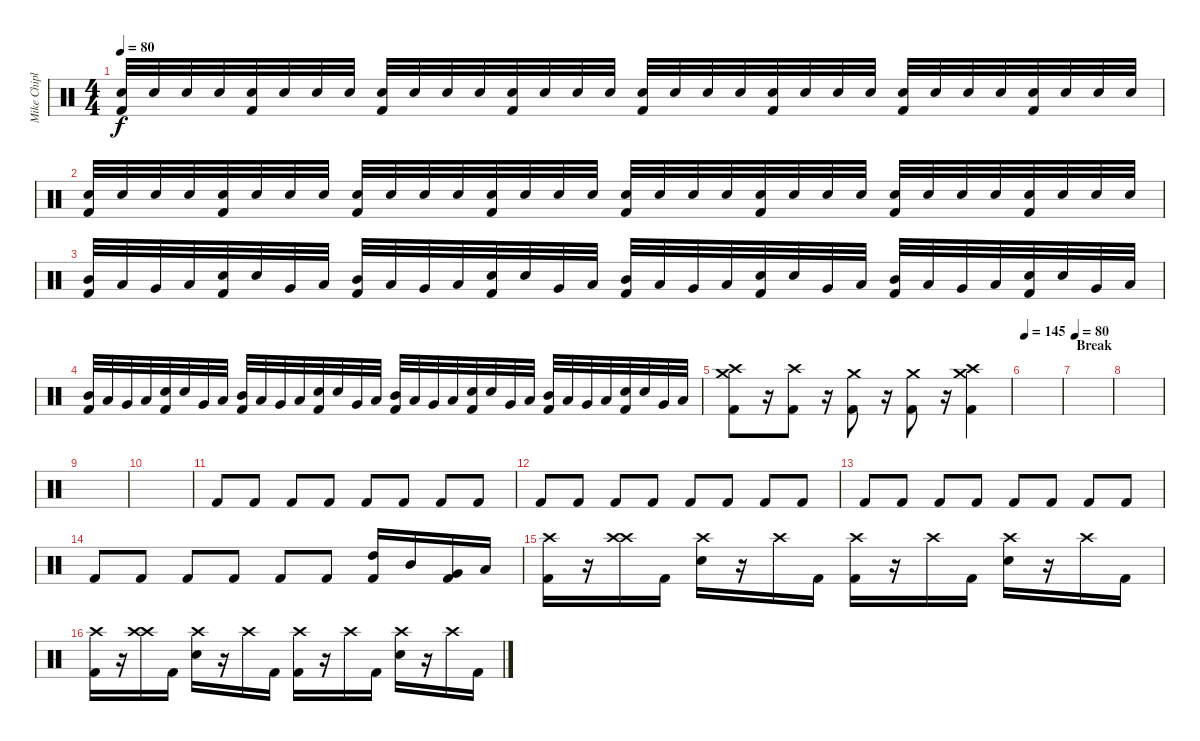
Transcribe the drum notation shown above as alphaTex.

\track ("Mike Chiplin" "Mike Chipl") {instrument percussion}
\staff {score}
\articulation defaults
\ts (4 4)
\tempo 80
\clef neutral
\ks c
("Kick (hit) 2" "Snare (hit) 2").32{dy f} "Snare (hit) 2".32 "Snare (hit) 2".32 "Snare (hit) 2".32 ("Kick (hit) 2" "Snare (hit) 2").32 "Snare (hit) 2".32 "Snare (hit) 2".32 "Snare (hit) 2".32 ("Kick (hit) 2" "Snare (hit) 2").32 "Snare (hit) 2".32 "Snare (hit) 2".32 "Snare (hit) 2".32 ("Kick (hit) 2" "Snare (hit) 2").32 "Snare (hit) 2".32 "Snare (hit) 2".32 "Snare (hit) 2".32 ("Kick (hit) 2" "Snare (hit) 2").32 "Snare (hit) 2".32 "Snare (hit) 2".32 "Snare (hit) 2".32 ("Kick (hit) 2" "Snare (hit) 2").32 "Snare (hit) 2".32 "Snare (hit) 2".32 "Snare (hit) 2".32 ("Kick (hit) 2" "Snare (hit) 2").32 "Snare (hit) 2".32 "Snare (hit) 2".32 "Snare (hit) 2".32 ("Kick (hit) 2" "Snare (hit) 2").32 "Snare (hit) 2".32 "Snare (hit) 2".32 "Snare (hit) 2".32 |
("Kick (hit) 2" "Snare (hit) 2").32 "Snare (hit) 2".32 "Snare (hit) 2".32 "Snare (hit) 2".32 ("Kick (hit) 2" "Snare (hit) 2").32 "Snare (hit) 2".32 "Snare (hit) 2".32 "Snare (hit) 2".32 ("Kick (hit) 2" "Snare (hit) 2").32 "Snare (hit) 2".32 "Snare (hit) 2".32 "Snare (hit) 2".32 ("Kick (hit) 2" "Snare (hit) 2").32 "Snare (hit) 2".32 "Snare (hit) 2".32 "Snare (hit) 2".32 ("Kick (hit) 2" "Snare (hit) 2").32 "Snare (hit) 2".32 "Snare (hit) 2".32 "Snare (hit) 2".32 ("Kick (hit) 2" "Snare (hit) 2").32 "Snare (hit) 2".32 "Snare (hit) 2".32 "Snare (hit) 2".32 ("Kick (hit) 2" "Snare (hit) 2").32 "Snare (hit) 2".32 "Snare (hit) 2".32 "Snare (hit) 2".32 ("Kick (hit) 2" "Snare (hit) 2").32 "Snare (hit) 2".32 "Snare (hit) 2".32 "Snare (hit) 2".32 |
("Mid Tom (hit)" "Kick (hit) 2").32 "Low Tom (hit)".32 "Very Low Tom (hit)".32 "Low Floor Tom (hit)".32 ("Snare (hit) 2" "Kick (hit) 2").32 "Snare (hit) 2".32 "Very Low Tom (hit)".32 "Low Floor Tom (hit)".32 ("Mid Tom (hit)" "Kick (hit) 2").32 "Low Tom (hit)".32 "Very Low Tom (hit)".32 "Low Floor Tom (hit)".32 ("Snare (hit) 2" "Kick (hit) 2").32 "Snare (hit) 2".32 "Very Low Tom (hit)".32 "Low Floor Tom (hit)".32 ("Mid Tom (hit)" "Kick (hit) 2").32 "Low Tom (hit)".32 "Very Low Tom (hit)".32 "Low Floor Tom (hit)".32 ("Snare (hit) 2" "Kick (hit) 2").32 "Snare (hit) 2".32 "Very Low Tom (hit)".32 "Low Floor Tom (hit)".32 ("Mid Tom (hit)" "Kick (hit) 2").32 "Low Tom (hit)".32 "Very Low Tom (hit)".32 "Low Floor Tom (hit)".32 ("Snare (hit) 2" "Kick (hit) 2").32 "Snare (hit) 2".32 "Very Low Tom (hit)".32 "Low Floor Tom (hit)".32 |
("Mid Tom (hit)" "Kick (hit) 2").32 "Low Tom (hit)".32 "Very Low Tom (hit)".32 "Low Floor Tom (hit)".32 ("Snare (hit) 2" "Kick (hit) 2").32 "Snare (hit) 2".32 "Very Low Tom (hit)".32 "Low Floor Tom (hit)".32 ("Mid Tom (hit)" "Kick (hit) 2").32 "Low Tom (hit)".32 "Very Low Tom (hit)".32 "Low Floor Tom (hit)".32 ("Snare (hit) 2" "Kick (hit) 2").32 "Snare (hit) 2".32 "Very Low Tom (hit)".32 "Low Floor Tom (hit)".32 ("Mid Tom (hit)" "Kick (hit) 2").32 "Low Tom (hit)".32 "Very Low Tom (hit)".32 "Low Floor Tom (hit)".32 ("Snare (hit) 2" "Kick (hit) 2").32 "Snare (hit) 2".32 "Very Low Tom (hit)".32 "Low Floor Tom (hit)".32 ("Mid Tom (hit)" "Kick (hit) 2").32 "Low Tom (hit)".32 "Very Low Tom (hit)".32 "Low Floor Tom (hit)".32 ("Snare (hit) 2" "Kick (hit) 2").32 "Snare (hit) 2".32 "Very Low Tom (hit)".32 "Low Floor Tom (hit)".32 |
("Kick (hit) 2" "Crash medium (hit)" "Crash high (hit)").8 r.16 ("Kick (hit) 2" "Crash high (hit)").8 r.16 ("Kick (hit) 2" "Crash medium (hit)").8 r.16 ("Kick (hit) 2" "Crash medium (hit)").8 r.16 ("Kick (hit) 2" "Crash medium (hit)" "Crash high (hit)").4 |
\tempo 145
|
\section ("" "Break")
\tempo 80
|
|
|
|
"Kick (hit) 2".8 "Kick (hit) 2".8 "Kick (hit) 2".8 "Kick (hit) 2".8 "Kick (hit) 2".8 "Kick (hit) 2".8 "Kick (hit) 2".8 "Kick (hit) 2".8 |
"Kick (hit) 2".8 "Kick (hit) 2".8 "Kick (hit) 2".8 "Kick (hit) 2".8 "Kick (hit) 2".8 "Kick (hit) 2".8 "Kick (hit) 2".8 "Kick (hit) 2".8 |
"Kick (hit) 2".8 "Kick (hit) 2".8 "Kick (hit) 2".8 "Kick (hit) 2".8 "Kick (hit) 2".8 "Kick (hit) 2".8 "Kick (hit) 2".8 "Kick (hit) 2".8 |
"Kick (hit) 2".8 "Kick (hit) 2".8 "Kick (hit) 2".8 "Kick (hit) 2".8 "Kick (hit) 2".8 "Kick (hit) 2".8 ("High Tom (hit)" "Kick (hit) 2").16 "Mid Tom (hit)".16 ("Very Low Tom (hit)" "Kick (hit) 2").16 "Low Floor Tom (hit)".16 |
("Kick (hit) 2" "Crash high (hit)").16 r.16 ("Crash high (hit)" "Crash high (hit)").16 "Kick (hit) 2".16 ("Snare (hit) 2" "Crash high (hit)").16 r.16 "Crash high (hit)".16 "Kick (hit) 2".16 ("Kick (hit) 2" "Crash high (hit)").16 r.16 "Crash high (hit)".16 "Kick (hit) 2".16 ("Snare (hit) 2" "Crash high (hit)").16 r.16 "Crash high (hit)".16 "Kick (hit) 2".16 |
("Kick (hit) 2" "Crash high (hit)").16 r.16 ("Crash high (hit)" "Crash high (hit)").16 "Kick (hit) 2".16 ("Snare (hit) 2" "Crash high (hit)").16 r.16 "Crash high (hit)".16 "Kick (hit) 2".16 ("Kick (hit) 2" "Crash high (hit)").16 r.16 "Crash high (hit)".16 "Kick (hit) 2".16 ("Snare (hit) 2" "Crash high (hit)").16 r.16 "Crash high (hit)".16 "Kick (hit) 2".16
